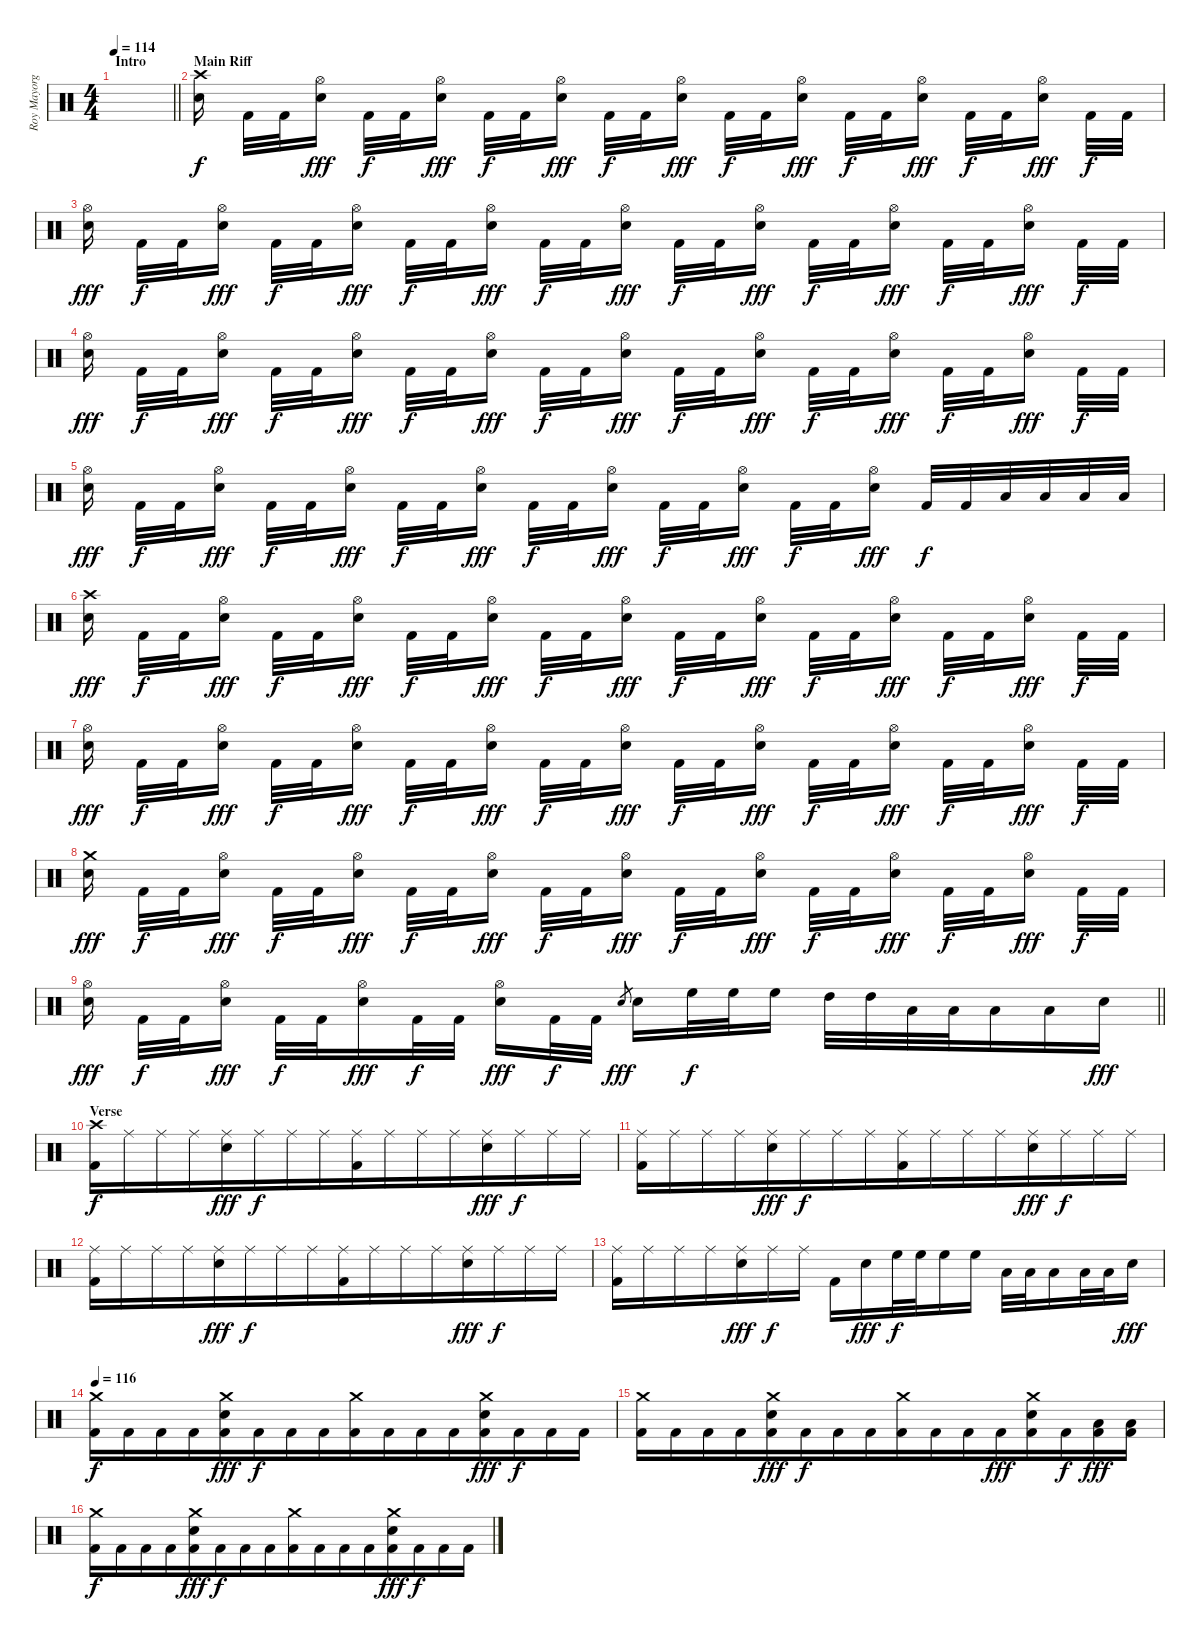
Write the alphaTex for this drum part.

\track ("Roy Mayorga" "Roy Mayorg") {instrument percussion}
\staff {score}
\articulation defaults
\ts (4 4)
\section ("" "Intro")
\tempo 114
\clef neutral
\barLineRight lightlight
\ks c
|
\section ("" "Main Riff")
("Crash high (hit)" "Electric Snare (hit)").16{beam split} "Kick (hit) 2".32{dy f} "Kick (hit) 2".32 ("Hi-Hat (open)" "Electric Snare (hit)").16{dy fff beam split} "Kick (hit) 2".32{dy f} "Kick (hit) 2".32{beam merge} ("Hi-Hat (open)" "Electric Snare (hit)").16{dy fff beam split} "Kick (hit) 2".32{dy f} "Kick (hit) 2".32 ("Hi-Hat (open)" "Electric Snare (hit)").16{dy fff beam split} "Kick (hit) 2".32{dy f} "Kick (hit) 2".32{beam merge} ("Hi-Hat (open)" "Electric Snare (hit)").16{dy fff beam split} "Kick (hit) 2".32{dy f} "Kick (hit) 2".32 ("Hi-Hat (open)" "Electric Snare (hit)").16{dy fff beam split} "Kick (hit) 2".32{dy f} "Kick (hit) 2".32{beam merge} ("Hi-Hat (open)" "Electric Snare (hit)").16{dy fff beam split} "Kick (hit) 2".32{dy f} "Kick (hit) 2".32 ("Hi-Hat (open)" "Electric Snare (hit)").16{dy fff beam split} "Kick (hit) 2".32{dy f beam Down} "Kick (hit) 2".32{beam Down} |
("Hi-Hat (open)" "Electric Snare (hit)").16{dy fff beam split} "Kick (hit) 2".32{dy f} "Kick (hit) 2".32 ("Hi-Hat (open)" "Electric Snare (hit)").16{dy fff beam split} "Kick (hit) 2".32{dy f} "Kick (hit) 2".32{beam merge} ("Hi-Hat (open)" "Electric Snare (hit)").16{dy fff beam split} "Kick (hit) 2".32{dy f} "Kick (hit) 2".32 ("Hi-Hat (open)" "Electric Snare (hit)").16{dy fff beam split} "Kick (hit) 2".32{dy f} "Kick (hit) 2".32{beam merge} ("Hi-Hat (open)" "Electric Snare (hit)").16{dy fff beam split} "Kick (hit) 2".32{dy f} "Kick (hit) 2".32 ("Hi-Hat (open)" "Electric Snare (hit)").16{dy fff beam split} "Kick (hit) 2".32{dy f} "Kick (hit) 2".32{beam merge} ("Hi-Hat (open)" "Electric Snare (hit)").16{dy fff beam split} "Kick (hit) 2".32{dy f} "Kick (hit) 2".32 ("Hi-Hat (open)" "Electric Snare (hit)").16{dy fff beam split} "Kick (hit) 2".32{dy f beam Down} "Kick (hit) 2".32{beam Down} |
("Hi-Hat (open)" "Electric Snare (hit)").16{dy fff beam split} "Kick (hit) 2".32{dy f} "Kick (hit) 2".32 ("Hi-Hat (open)" "Electric Snare (hit)").16{dy fff beam split} "Kick (hit) 2".32{dy f} "Kick (hit) 2".32{beam merge} ("Hi-Hat (open)" "Electric Snare (hit)").16{dy fff beam split} "Kick (hit) 2".32{dy f} "Kick (hit) 2".32 ("Hi-Hat (open)" "Electric Snare (hit)").16{dy fff beam split} "Kick (hit) 2".32{dy f} "Kick (hit) 2".32{beam merge} ("Hi-Hat (open)" "Electric Snare (hit)").16{dy fff beam split} "Kick (hit) 2".32{dy f} "Kick (hit) 2".32 ("Hi-Hat (open)" "Electric Snare (hit)").16{dy fff beam split} "Kick (hit) 2".32{dy f} "Kick (hit) 2".32{beam merge} ("Hi-Hat (open)" "Electric Snare (hit)").16{dy fff beam split} "Kick (hit) 2".32{dy f} "Kick (hit) 2".32 ("Hi-Hat (open)" "Electric Snare (hit)").16{dy fff beam split} "Kick (hit) 2".32{dy f beam Down} "Kick (hit) 2".32{beam Down} |
("Hi-Hat (open)" "Electric Snare (hit)").16{dy fff beam split} "Kick (hit) 2".32{dy f} "Kick (hit) 2".32 ("Hi-Hat (open)" "Electric Snare (hit)").16{dy fff beam split} "Kick (hit) 2".32{dy f} "Kick (hit) 2".32{beam merge} ("Hi-Hat (open)" "Electric Snare (hit)").16{dy fff beam split} "Kick (hit) 2".32{dy f} "Kick (hit) 2".32 ("Hi-Hat (open)" "Electric Snare (hit)").16{dy fff beam split} "Kick (hit) 2".32{dy f} "Kick (hit) 2".32{beam merge} ("Hi-Hat (open)" "Electric Snare (hit)").16{dy fff beam split} "Kick (hit) 2".32{dy f} "Kick (hit) 2".32 ("Hi-Hat (open)" "Electric Snare (hit)").16{dy fff beam split} "Kick (hit) 2".32{dy f} "Kick (hit) 2".32{beam merge} ("Hi-Hat (open)" "Electric Snare (hit)").16{dy fff beam split} "Kick (hit) 2".32{dy f} "Kick (hit) 2".32{beam merge} "Low Tom (hit)".32 "Low Tom (hit)".32{beam merge} "Low Floor Tom (hit)".32 "Low Floor Tom (hit)".32 |
("Crash high (hit)" "Electric Snare (hit)").16{dy fff beam split} "Kick (hit) 2".32{dy f} "Kick (hit) 2".32 ("Hi-Hat (open)" "Electric Snare (hit)").16{dy fff beam split} "Kick (hit) 2".32{dy f} "Kick (hit) 2".32{beam merge} ("Hi-Hat (open)" "Electric Snare (hit)").16{dy fff beam split} "Kick (hit) 2".32{dy f} "Kick (hit) 2".32 ("Hi-Hat (open)" "Electric Snare (hit)").16{dy fff beam split} "Kick (hit) 2".32{dy f} "Kick (hit) 2".32{beam merge} ("Hi-Hat (open)" "Electric Snare (hit)").16{dy fff beam split} "Kick (hit) 2".32{dy f} "Kick (hit) 2".32 ("Hi-Hat (open)" "Electric Snare (hit)").16{dy fff beam split} "Kick (hit) 2".32{dy f} "Kick (hit) 2".32{beam merge} ("Hi-Hat (open)" "Electric Snare (hit)").16{dy fff beam split} "Kick (hit) 2".32{dy f} "Kick (hit) 2".32 ("Hi-Hat (open)" "Electric Snare (hit)").16{dy fff beam split} "Kick (hit) 2".32{dy f beam Down} "Kick (hit) 2".32{beam Down} |
("Hi-Hat (open)" "Electric Snare (hit)").16{dy fff beam split} "Kick (hit) 2".32{dy f} "Kick (hit) 2".32 ("Hi-Hat (open)" "Electric Snare (hit)").16{dy fff beam split} "Kick (hit) 2".32{dy f} "Kick (hit) 2".32{beam merge} ("Hi-Hat (open)" "Electric Snare (hit)").16{dy fff beam split} "Kick (hit) 2".32{dy f} "Kick (hit) 2".32 ("Hi-Hat (open)" "Electric Snare (hit)").16{dy fff beam split} "Kick (hit) 2".32{dy f} "Kick (hit) 2".32{beam merge} ("Hi-Hat (open)" "Electric Snare (hit)").16{dy fff beam split} "Kick (hit) 2".32{dy f} "Kick (hit) 2".32 ("Hi-Hat (open)" "Electric Snare (hit)").16{dy fff beam split} "Kick (hit) 2".32{dy f} "Kick (hit) 2".32{beam merge} ("Hi-Hat (open)" "Electric Snare (hit)").16{dy fff beam split} "Kick (hit) 2".32{dy f} "Kick (hit) 2".32 ("Hi-Hat (open)" "Electric Snare (hit)").16{dy fff beam split} "Kick (hit) 2".32{dy f beam Down} "Kick (hit) 2".32{beam Down} |
("Crash medium (hit)" "Electric Snare (hit)").16{dy fff beam split} "Kick (hit) 2".32{dy f} "Kick (hit) 2".32 ("Hi-Hat (open)" "Electric Snare (hit)").16{dy fff beam split} "Kick (hit) 2".32{dy f} "Kick (hit) 2".32{beam merge} ("Hi-Hat (open)" "Electric Snare (hit)").16{dy fff beam split} "Kick (hit) 2".32{dy f} "Kick (hit) 2".32 ("Hi-Hat (open)" "Electric Snare (hit)").16{dy fff beam split} "Kick (hit) 2".32{dy f} "Kick (hit) 2".32{beam merge} ("Hi-Hat (open)" "Electric Snare (hit)").16{dy fff beam split} "Kick (hit) 2".32{dy f} "Kick (hit) 2".32 ("Hi-Hat (open)" "Electric Snare (hit)").16{dy fff beam split} "Kick (hit) 2".32{dy f} "Kick (hit) 2".32{beam merge} ("Hi-Hat (open)" "Electric Snare (hit)").16{dy fff beam split} "Kick (hit) 2".32{dy f} "Kick (hit) 2".32 ("Hi-Hat (open)" "Electric Snare (hit)").16{dy fff beam split} "Kick (hit) 2".32{dy f beam Down} "Kick (hit) 2".32{beam Down} |
\barLineRight lightlight
("Hi-Hat (open)" "Electric Snare (hit)").16{dy fff beam split} "Kick (hit) 2".32{dy f} "Kick (hit) 2".32 ("Hi-Hat (open)" "Electric Snare (hit)").16{dy fff beam split} "Kick (hit) 2".32{dy f} "Kick (hit) 2".32{beam merge} ("Hi-Hat (open)" "Electric Snare (hit)").16{dy fff} "Kick (hit) 2".32{dy f} "Kick (hit) 2".32{beam split} ("Hi-Hat (open)" "Electric Snare (hit)").16{dy fff} "Kick (hit) 2".32{dy f} "Kick (hit) 2".32 "Electric Snare (hit)".8{gr dy fff} "Electric Snare (hit)".16{beam merge} "High Floor Tom (hit)".32{dy f} "High Floor Tom (hit)".32 "High Floor Tom (hit)".16{beam split} "High Tom (hit)".32 "High Tom (hit)".32{beam merge} "Low Tom (hit)".32 "Low Tom (hit)".32{beam merge} "Low Floor Tom (hit)".16 "Low Floor Tom (hit)".16 "Electric Snare (hit)".16{dy fff} |
\section ("" "Verse")
("Crash high (hit)" "Kick (hit) 2").16{dy f} "Ride (middle)".16 "Ride (middle)".16 "Ride (middle)".16{beam merge} ("Ride (middle)" "Electric Snare (hit)").16{dy fff} "Ride (middle)".16{dy f} "Ride (middle)".16 "Ride (middle)".16{beam merge} ("Ride (middle)" "Kick (hit) 2").16 "Ride (middle)".16 "Ride (middle)".16 "Ride (middle)".16{beam merge} ("Ride (middle)" "Electric Snare (hit)").16{dy fff} "Ride (middle)".16{dy f} "Ride (middle)".16 "Ride (middle)".16 |
("Ride (middle)" "Kick (hit) 2").16 "Ride (middle)".16 "Ride (middle)".16 "Ride (middle)".16{beam merge} ("Ride (middle)" "Electric Snare (hit)").16{dy fff} "Ride (middle)".16{dy f} "Ride (middle)".16 "Ride (middle)".16{beam merge} ("Ride (middle)" "Kick (hit) 2").16 "Ride (middle)".16 "Ride (middle)".16 "Ride (middle)".16{beam merge} ("Ride (middle)" "Electric Snare (hit)").16{dy fff} "Ride (middle)".16{dy f} "Ride (middle)".16 "Ride (middle)".16 |
("Ride (middle)" "Kick (hit) 2").16 "Ride (middle)".16 "Ride (middle)".16 "Ride (middle)".16{beam merge} ("Ride (middle)" "Electric Snare (hit)").16{dy fff} "Ride (middle)".16{dy f} "Ride (middle)".16 "Ride (middle)".16{beam merge} ("Ride (middle)" "Kick (hit) 2").16 "Ride (middle)".16 "Ride (middle)".16 "Ride (middle)".16{beam merge} ("Ride (middle)" "Electric Snare (hit)").16{dy fff} "Ride (middle)".16{dy f} "Ride (middle)".16 "Ride (middle)".16 |
("Ride (middle)" "Kick (hit) 2").16 "Ride (middle)".16 "Ride (middle)".16 "Ride (middle)".16{beam merge} ("Ride (middle)" "Electric Snare (hit)").16{dy fff} "Ride (middle)".16{dy f} "Ride (middle)".16{beam split} "Kick (hit) 2".16{beam merge} "Electric Snare (hit)".16{dy fff} "High Floor Tom (hit)".32{dy f} "High Floor Tom (hit)".32 "High Floor Tom (hit)".16 "High Floor Tom (hit)".16 "Low Tom (hit)".32 "Low Tom (hit)".32 "Low Tom (hit)".16 "Low Floor Tom (hit)".32 "Low Floor Tom (hit)".32 "Electric Snare (hit)".16{dy fff} |
\tempo 116
("Crash medium (hit)" "Kick (hit) 2").16{dy f} "Kick (hit) 2".16 "Kick (hit) 2".16 "Kick (hit) 2".16{beam merge} ("Crash medium (hit)" "Electric Snare (hit)" "Kick (hit) 2").16{dy fff} "Kick (hit) 2".16{dy f} "Kick (hit) 2".16 "Kick (hit) 2".16{beam merge} ("Crash medium (hit)" "Kick (hit) 2").16 "Kick (hit) 2".16 "Kick (hit) 2".16 "Kick (hit) 2".16{beam merge} ("Crash medium (hit)" "Electric Snare (hit)" "Kick (hit) 2").16{dy fff} "Kick (hit) 2".16{dy f} "Kick (hit) 2".16 "Kick (hit) 2".16 |
("Crash medium (hit)" "Kick (hit) 2").16 "Kick (hit) 2".16 "Kick (hit) 2".16 "Kick (hit) 2".16{beam merge} ("Crash medium (hit)" "Electric Snare (hit)" "Kick (hit) 2").16{dy fff} "Kick (hit) 2".16{dy f} "Kick (hit) 2".16 "Kick (hit) 2".16{beam merge} ("Crash medium (hit)" "Kick (hit) 2").16 "Kick (hit) 2".16 "Kick (hit) 2".16 "Kick (hit) 2".16{dy fff beam merge} ("Crash medium (hit)" "Electric Snare (hit)" "Kick (hit) 2").16 "Kick (hit) 2".16{dy f} ("Low Tom (hit)" "Kick (hit) 2").16{dy fff} ("Low Floor Tom (hit)" "Kick (hit) 2").16 |
("Crash medium (hit)" "Kick (hit) 2").16{dy f} "Kick (hit) 2".16 "Kick (hit) 2".16 "Kick (hit) 2".16{beam merge} ("Crash medium (hit)" "Electric Snare (hit)" "Kick (hit) 2").16{dy fff} "Kick (hit) 2".16{dy f} "Kick (hit) 2".16 "Kick (hit) 2".16{beam merge} ("Crash medium (hit)" "Kick (hit) 2").16 "Kick (hit) 2".16 "Kick (hit) 2".16 "Kick (hit) 2".16{beam merge} ("Crash medium (hit)" "Electric Snare (hit)" "Kick (hit) 2").16{dy fff} "Kick (hit) 2".16{dy f} "Kick (hit) 2".16 "Kick (hit) 2".16
